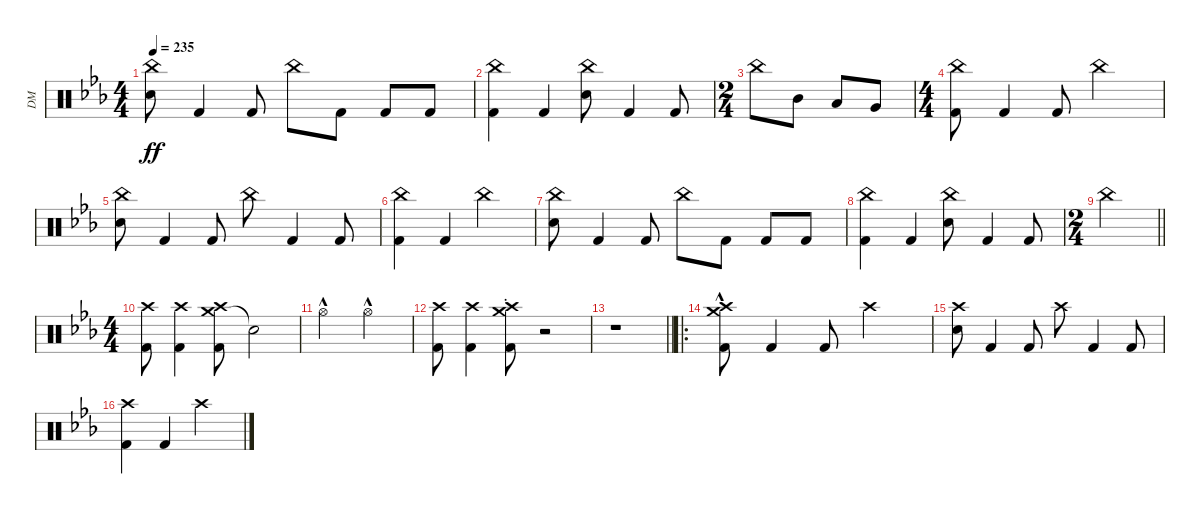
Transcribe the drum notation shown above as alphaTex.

\track ("DM" "DM") {instrument percussion}
\staff {score}
\articulation defaults
\ts (4 4)
\tempo 235
\clef neutral
\ks cminor
("China (hit)" "Electric Snare (hit)").8{dy ff} "Kick (hit) 2".4 "Kick (hit) 2".8 "China (hit)".8 "Kick (hit) 2".8 "Kick (hit) 2".8 "Kick (hit) 2".8 |
("China (hit)" "Kick (hit) 2").4 "Kick (hit) 2".4 ("China (hit)" "Electric Snare (hit)").8 "Kick (hit) 2".4 "Kick (hit) 2".8 |
\ts (2 4)
"China (hit)".8 "Mid Tom (hit)".8 "Low Tom (hit)".8 "Very Low Tom (hit)".8 |
\ts (4 4)
("China (hit)" "Kick (hit) 2").8 "Kick (hit) 2".4 "Kick (hit) 2".8 "China (hit)".2 |
("China (hit)" "Electric Snare (hit)").8 "Kick (hit) 2".4 "Kick (hit) 2".8 "China (hit)".8 "Kick (hit) 2".4 "Kick (hit) 2".8 |
("China (hit)" "Kick (hit) 2").4 "Kick (hit) 2".4 "China (hit)".2 |
("China (hit)" "Electric Snare (hit)").8 "Kick (hit) 2".4 "Kick (hit) 2".8 "China (hit)".8 "Kick (hit) 2".8 "Kick (hit) 2".8 "Kick (hit) 2".8 |
("China (hit)" "Kick (hit) 2").4 "Kick (hit) 2".4 ("China (hit)" "Electric Snare (hit)").8 "Kick (hit) 2".4 "Kick (hit) 2".8 |
\ts (2 4)
\barLineRight lightlight "China (hit)".2
|
\ts (4 4)
\section ("" "")
("Crash high (hit)" "Kick (hit) 2").8 ("Crash high (hit)" "Kick (hit) 2").4 ("Crash medium (hit)" "Crash high (hit)" "Kick (hit) 2").8 "Snare (hit)"{t}.2 |
"Hi-Hat (open)"{hac}.2 "Hi-Hat (open)"{hac}.2 |
("Crash high (hit)" "Kick (hit) 2").8 ("Crash high (hit)" "Kick (hit) 2").4 ("Crash medium (hit)"{st} "Crash high (hit)"{st} "Kick (hit) 2").8 r.2 |
\barLineRight lightlight
r.1 |
\ro
\section ("" "")
("Crash medium (hit)" "Crash high (hit)" "Kick (hit) 2"{hac}).8 "Kick (hit) 2".4 "Kick (hit) 2".8 "Crash high (hit)".2 |
("Crash high (hit)" "Electric Snare (hit)").8 "Kick (hit) 2".4 "Kick (hit) 2".8 "Crash high (hit)".8 "Kick (hit) 2".4 "Kick (hit) 2".8 |
("Crash high (hit)" "Kick (hit) 2").4 "Kick (hit) 2".4 "Crash high (hit)".2
